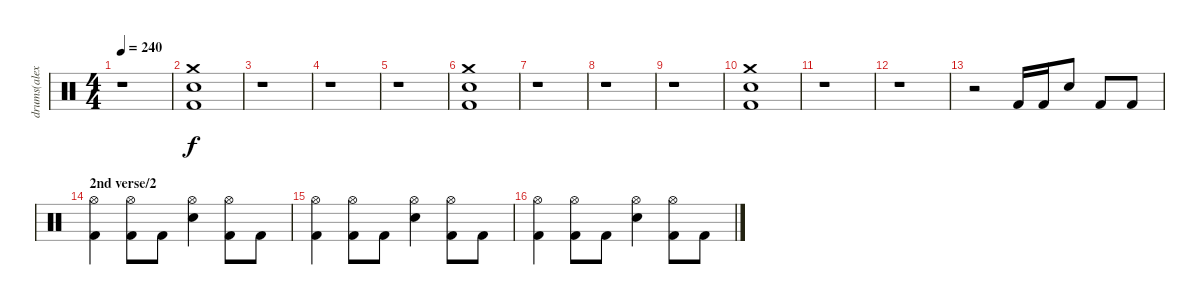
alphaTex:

\track ("drums(alex holzshwart)" "drums(alex") {instrument percussion}
\staff {score}
\articulation defaults
\ts (4 4)
\tempo 240
\clef neutral
\ks c
r.1{dy f} |
("Crash medium (hit)" "Electric Snare (hit)" "Kick (hit) 2").1 |
r.1 |
r.1 |
r.1 |
("Crash medium (hit)" "Electric Snare (hit)" "Kick (hit) 2").1 |
r.1 |
r.1 |
r.1 |
("Crash medium (hit)" "Electric Snare (hit)" "Kick (hit) 2").1 |
r.1 |
r.1 |
r.2 "Kick (hit) 2".16 "Kick (hit) 2".16 "Electric Snare (hit)".8 "Kick (hit) 2".8 "Kick (hit) 2".8 |
\section ("" "2nd verse/2")
("Hi-Hat (open)" "Kick (hit) 2").4 ("Hi-Hat (open)" "Kick (hit) 2").8 "Kick (hit) 2".8 ("Hi-Hat (open)" "Electric Snare (hit)").4 ("Hi-Hat (open)" "Kick (hit) 2").8 "Kick (hit) 2".8 |
("Hi-Hat (open)" "Kick (hit) 2").4 ("Hi-Hat (open)" "Kick (hit) 2").8 "Kick (hit) 2".8 ("Hi-Hat (open)" "Electric Snare (hit)").4 ("Hi-Hat (open)" "Kick (hit) 2").8 "Kick (hit) 2".8 |
("Hi-Hat (open)" "Kick (hit) 2").4 ("Hi-Hat (open)" "Kick (hit) 2").8 "Kick (hit) 2".8 ("Hi-Hat (open)" "Electric Snare (hit)").4 ("Hi-Hat (open)" "Kick (hit) 2").8 "Kick (hit) 2".8
